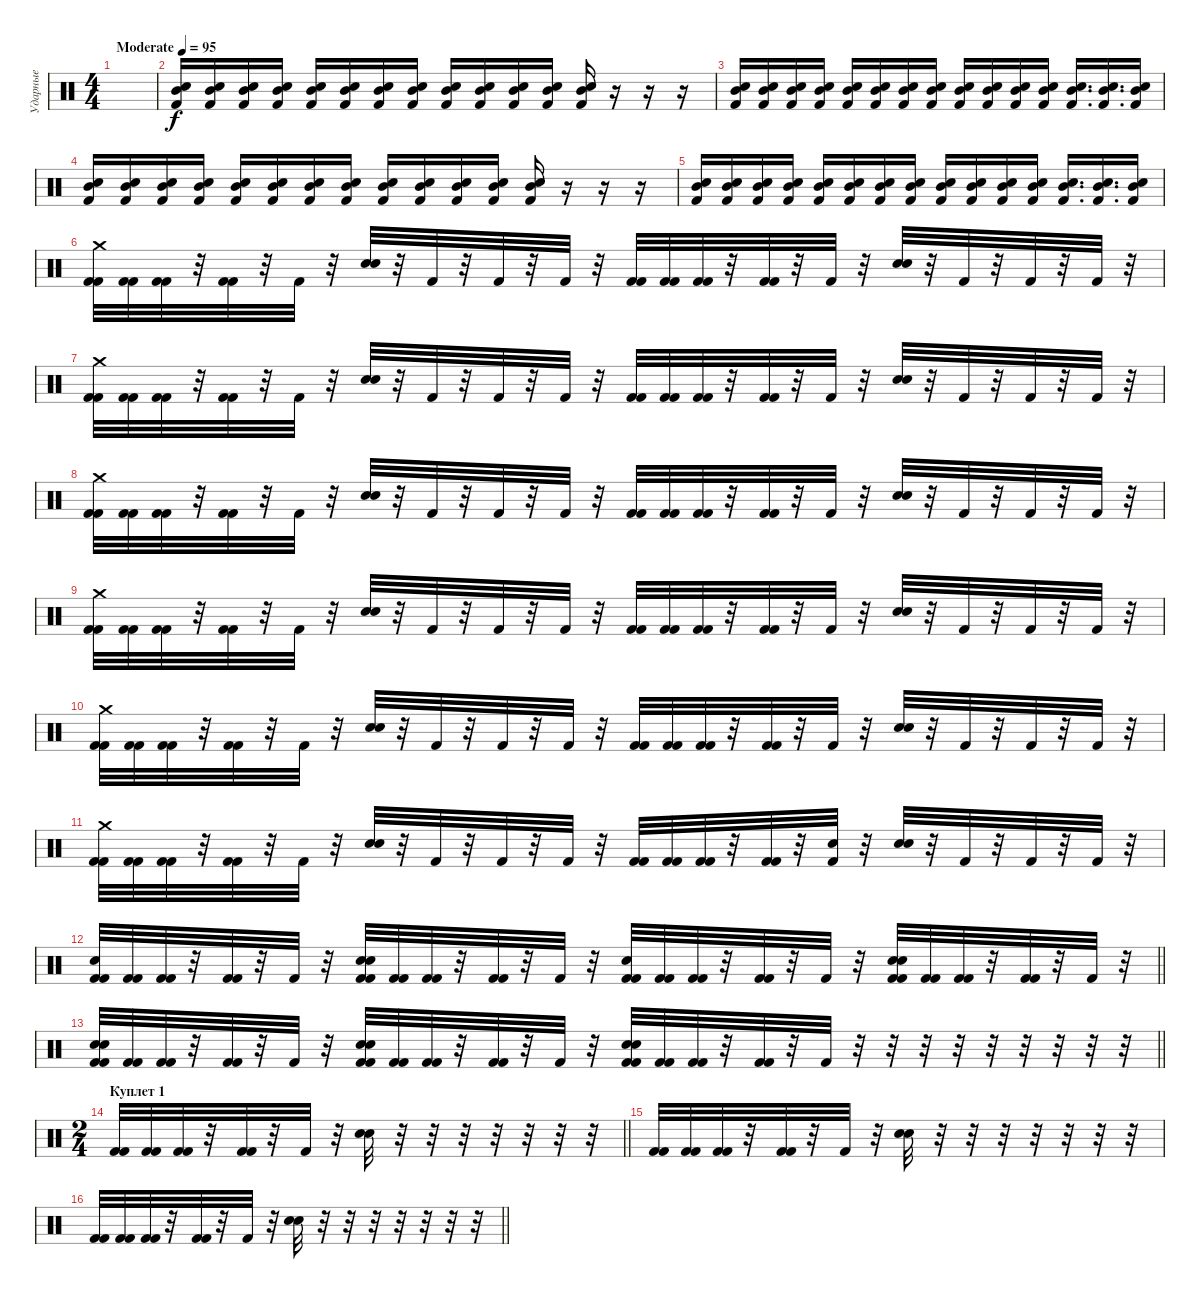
\track ("Ударные" "Ударные") {instrument percussion}
\staff {score}
\articulation defaults
\ts (4 4)
\tempo (95 "Moderate")
\clef neutral
\ks c
|
("Mid Tom (hit)" "Snare (hit) 2" "Kick (hit) 2").16 ("Mid Tom (hit)" "Snare (hit) 2" "Kick (hit) 2").16 ("Mid Tom (hit)" "Snare (hit) 2" "Kick (hit) 2").16 ("Mid Tom (hit)" "Snare (hit) 2" "Kick (hit) 2").16 ("Mid Tom (hit)" "Snare (hit) 2" "Kick (hit) 2").16 ("Mid Tom (hit)" "Snare (hit) 2" "Kick (hit) 2").16 ("Mid Tom (hit)" "Snare (hit) 2" "Kick (hit) 2").16 ("Mid Tom (hit)" "Snare (hit) 2" "Kick (hit) 2").16 ("Mid Tom (hit)" "Snare (hit) 2" "Kick (hit) 2").16 ("Mid Tom (hit)" "Snare (hit) 2" "Kick (hit) 2").16 ("Mid Tom (hit)" "Snare (hit) 2" "Kick (hit) 2").16 ("Mid Tom (hit)" "Snare (hit) 2" "Kick (hit) 2").16 ("Mid Tom (hit)" "Snare (hit) 2" "Kick (hit) 2").16 r.16 r.16 r.16 |
("Mid Tom (hit)" "Snare (hit) 2" "Kick (hit) 2").16 ("Mid Tom (hit)" "Snare (hit) 2" "Kick (hit) 2").16 ("Mid Tom (hit)" "Snare (hit) 2" "Kick (hit) 2").16 ("Mid Tom (hit)" "Snare (hit) 2" "Kick (hit) 2").16 ("Mid Tom (hit)" "Snare (hit) 2" "Kick (hit) 2").16 ("Mid Tom (hit)" "Snare (hit) 2" "Kick (hit) 2").16 ("Mid Tom (hit)" "Snare (hit) 2" "Kick (hit) 2").16 ("Mid Tom (hit)" "Snare (hit) 2" "Kick (hit) 2").16 ("Mid Tom (hit)" "Snare (hit) 2" "Kick (hit) 2").16 ("Mid Tom (hit)" "Snare (hit) 2" "Kick (hit) 2").16 ("Mid Tom (hit)" "Snare (hit) 2" "Kick (hit) 2").16 ("Mid Tom (hit)" "Snare (hit) 2" "Kick (hit) 2").16 ("Mid Tom (hit)" "Snare (hit) 2" "Kick (hit) 2").16{d} ("Mid Tom (hit)" "Snare (hit) 2" "Kick (hit) 2").16{d} ("Mid Tom (hit)" "Snare (hit) 2" "Kick (hit) 2").16 |
("Mid Tom (hit)" "Snare (hit) 2" "Kick (hit) 2").16 ("Mid Tom (hit)" "Snare (hit) 2" "Kick (hit) 2").16 ("Mid Tom (hit)" "Snare (hit) 2" "Kick (hit) 2").16 ("Mid Tom (hit)" "Snare (hit) 2" "Kick (hit) 2").16 ("Mid Tom (hit)" "Snare (hit) 2" "Kick (hit) 2").16 ("Mid Tom (hit)" "Snare (hit) 2" "Kick (hit) 2").16 ("Mid Tom (hit)" "Snare (hit) 2" "Kick (hit) 2").16 ("Mid Tom (hit)" "Snare (hit) 2" "Kick (hit) 2").16 ("Mid Tom (hit)" "Snare (hit) 2" "Kick (hit) 2").16 ("Mid Tom (hit)" "Snare (hit) 2" "Kick (hit) 2").16 ("Mid Tom (hit)" "Snare (hit) 2" "Kick (hit) 2").16 ("Mid Tom (hit)" "Snare (hit) 2" "Kick (hit) 2").16 ("Mid Tom (hit)" "Snare (hit) 2" "Kick (hit) 2").16 r.16 r.16 r.16 |
("Mid Tom (hit)" "Snare (hit) 2" "Kick (hit) 2").16 ("Mid Tom (hit)" "Snare (hit) 2" "Kick (hit) 2").16 ("Mid Tom (hit)" "Snare (hit) 2" "Kick (hit) 2").16 ("Mid Tom (hit)" "Snare (hit) 2" "Kick (hit) 2").16 ("Mid Tom (hit)" "Snare (hit) 2" "Kick (hit) 2").16 ("Mid Tom (hit)" "Snare (hit) 2" "Kick (hit) 2").16 ("Mid Tom (hit)" "Snare (hit) 2" "Kick (hit) 2").16 ("Mid Tom (hit)" "Snare (hit) 2" "Kick (hit) 2").16 ("Mid Tom (hit)" "Snare (hit) 2" "Kick (hit) 2").16 ("Mid Tom (hit)" "Snare (hit) 2" "Kick (hit) 2").16 ("Mid Tom (hit)" "Snare (hit) 2" "Kick (hit) 2").16 ("Mid Tom (hit)" "Snare (hit) 2" "Kick (hit) 2").16 ("Mid Tom (hit)" "Snare (hit) 2" "Kick (hit) 2").16{d} ("Mid Tom (hit)" "Snare (hit) 2" "Kick (hit) 2").16{d} ("Mid Tom (hit)" "Snare (hit) 2" "Kick (hit) 2").16 |
("Kick (hit) 2" "Kick (hit) 2" "Crash medium (hit)").32 ("Kick (hit) 2" "Kick (hit) 2").32 ("Kick (hit) 2" "Kick (hit) 2").32 r.32 ("Kick (hit) 2" "Kick (hit) 2").32 r.32 "Kick (hit) 2".32 r.32 ("Electric Snare (hit)" "Electric Snare (hit)").32 r.32 "Kick (hit) 2".32 r.32 "Kick (hit) 2".32 r.32 "Kick (hit) 2".32 r.32 ("Kick (hit) 2" "Kick (hit) 2").32 ("Kick (hit) 2" "Kick (hit) 2").32 ("Kick (hit) 2" "Kick (hit) 2").32 r.32 ("Kick (hit) 2" "Kick (hit) 2").32 r.32 "Kick (hit) 2".32 r.32 ("Electric Snare (hit)" "Electric Snare (hit)").32 r.32 "Kick (hit) 2".32 r.32 "Kick (hit) 2".32 r.32 "Kick (hit) 2".32 r.32 |
("Kick (hit) 2" "Kick (hit) 2" "Crash medium (hit)").32 ("Kick (hit) 2" "Kick (hit) 2").32 ("Kick (hit) 2" "Kick (hit) 2").32 r.32 ("Kick (hit) 2" "Kick (hit) 2").32 r.32 "Kick (hit) 2".32 r.32 ("Electric Snare (hit)" "Electric Snare (hit)").32 r.32 "Kick (hit) 2".32 r.32 "Kick (hit) 2".32 r.32 "Kick (hit) 2".32 r.32 ("Kick (hit) 2" "Kick (hit) 2").32 ("Kick (hit) 2" "Kick (hit) 2").32 ("Kick (hit) 2" "Kick (hit) 2").32 r.32 ("Kick (hit) 2" "Kick (hit) 2").32 r.32 "Kick (hit) 2".32 r.32 ("Electric Snare (hit)" "Electric Snare (hit)").32 r.32 "Kick (hit) 2".32 r.32 "Kick (hit) 2".32 r.32 "Kick (hit) 2".32 r.32 |
("Kick (hit) 2" "Kick (hit) 2" "Crash medium (hit)").32 ("Kick (hit) 2" "Kick (hit) 2").32 ("Kick (hit) 2" "Kick (hit) 2").32 r.32 ("Kick (hit) 2" "Kick (hit) 2").32 r.32 "Kick (hit) 2".32 r.32 ("Electric Snare (hit)" "Electric Snare (hit)").32 r.32 "Kick (hit) 2".32 r.32 "Kick (hit) 2".32 r.32 "Kick (hit) 2".32 r.32 ("Kick (hit) 2" "Kick (hit) 2").32 ("Kick (hit) 2" "Kick (hit) 2").32 ("Kick (hit) 2" "Kick (hit) 2").32 r.32 ("Kick (hit) 2" "Kick (hit) 2").32 r.32 "Kick (hit) 2".32 r.32 ("Electric Snare (hit)" "Electric Snare (hit)").32 r.32 "Kick (hit) 2".32 r.32 "Kick (hit) 2".32 r.32 "Kick (hit) 2".32 r.32 |
("Kick (hit) 2" "Kick (hit) 2" "Crash medium (hit)").32 ("Kick (hit) 2" "Kick (hit) 2").32 ("Kick (hit) 2" "Kick (hit) 2").32 r.32 ("Kick (hit) 2" "Kick (hit) 2").32 r.32 "Kick (hit) 2".32 r.32 ("Electric Snare (hit)" "Electric Snare (hit)").32 r.32 "Kick (hit) 2".32 r.32 "Kick (hit) 2".32 r.32 "Kick (hit) 2".32 r.32 ("Kick (hit) 2" "Kick (hit) 2").32 ("Kick (hit) 2" "Kick (hit) 2").32 ("Kick (hit) 2" "Kick (hit) 2").32 r.32 ("Kick (hit) 2" "Kick (hit) 2").32 r.32 "Kick (hit) 2".32 r.32 ("Electric Snare (hit)" "Electric Snare (hit)").32 r.32 "Kick (hit) 2".32 r.32 "Kick (hit) 2".32 r.32 "Kick (hit) 2".32 r.32 |
("Kick (hit) 2" "Kick (hit) 2" "Crash medium (hit)").32 ("Kick (hit) 2" "Kick (hit) 2").32 ("Kick (hit) 2" "Kick (hit) 2").32 r.32 ("Kick (hit) 2" "Kick (hit) 2").32 r.32 "Kick (hit) 2".32 r.32 ("Electric Snare (hit)" "Electric Snare (hit)").32 r.32 "Kick (hit) 2".32 r.32 "Kick (hit) 2".32 r.32 "Kick (hit) 2".32 r.32 ("Kick (hit) 2" "Kick (hit) 2").32 ("Kick (hit) 2" "Kick (hit) 2").32 ("Kick (hit) 2" "Kick (hit) 2").32 r.32 ("Kick (hit) 2" "Kick (hit) 2").32 r.32 "Kick (hit) 2".32 r.32 ("Electric Snare (hit)" "Electric Snare (hit)").32 r.32 "Kick (hit) 2".32 r.32 "Kick (hit) 2".32 r.32 "Kick (hit) 2".32 r.32 |
("Kick (hit) 2" "Kick (hit) 2" "Crash medium (hit)").32 ("Kick (hit) 2" "Kick (hit) 2").32 ("Kick (hit) 2" "Kick (hit) 2").32 r.32 ("Kick (hit) 2" "Kick (hit) 2").32 r.32 "Kick (hit) 2".32 r.32 ("Electric Snare (hit)" "Electric Snare (hit)").32 r.32 "Kick (hit) 2".32 r.32 "Kick (hit) 2".32 r.32 "Kick (hit) 2".32 r.32 ("Kick (hit) 2" "Kick (hit) 2").32 ("Kick (hit) 2" "Kick (hit) 2").32 ("Kick (hit) 2" "Kick (hit) 2").32 r.32 ("Kick (hit) 2" "Kick (hit) 2").32 r.32 ("Kick (hit) 2" "Electric Snare (hit)").32 r.32 ("Electric Snare (hit)" "Electric Snare (hit)").32 r.32 "Kick (hit) 2".32 r.32 "Kick (hit) 2".32 r.32 "Kick (hit) 2".32 r.32 |
\barLineRight lightlight
("Kick (hit) 2" "Kick (hit) 2" "Electric Snare (hit)").32 ("Kick (hit) 2" "Kick (hit) 2").32 ("Kick (hit) 2" "Kick (hit) 2").32 r.32 ("Kick (hit) 2" "Kick (hit) 2").32 r.32 "Kick (hit) 2".32 r.32 ("Kick (hit) 2" "Kick (hit) 2" "Electric Snare (hit)" "Electric Snare (hit)").32 ("Kick (hit) 2" "Kick (hit) 2").32 ("Kick (hit) 2" "Kick (hit) 2").32 r.32 ("Kick (hit) 2" "Kick (hit) 2").32 r.32 "Kick (hit) 2".32 r.32 ("Kick (hit) 2" "Kick (hit) 2" "Electric Snare (hit)").32 ("Kick (hit) 2" "Kick (hit) 2").32 ("Kick (hit) 2" "Kick (hit) 2").32 r.32 ("Kick (hit) 2" "Kick (hit) 2").32 r.32 "Kick (hit) 2".32 r.32 ("Kick (hit) 2" "Kick (hit) 2" "Electric Snare (hit)" "Electric Snare (hit)").32 ("Kick (hit) 2" "Kick (hit) 2").32 ("Kick (hit) 2" "Kick (hit) 2").32 r.32 ("Kick (hit) 2" "Kick (hit) 2").32 r.32 "Kick (hit) 2".32 r.32 |
\section ("" "")
\barLineRight lightlight
("Kick (hit) 2" "Kick (hit) 2" "Electric Snare (hit)" "Electric Snare (hit)").32 ("Kick (hit) 2" "Kick (hit) 2").32 ("Kick (hit) 2" "Kick (hit) 2").32 r.32 ("Kick (hit) 2" "Kick (hit) 2").32 r.32 "Kick (hit) 2".32 r.32 ("Kick (hit) 2" "Kick (hit) 2" "Electric Snare (hit)" "Electric Snare (hit)").32 ("Kick (hit) 2" "Kick (hit) 2").32 ("Kick (hit) 2" "Kick (hit) 2").32 r.32 ("Kick (hit) 2" "Kick (hit) 2").32 r.32 "Kick (hit) 2".32 r.32 ("Kick (hit) 2" "Kick (hit) 2" "Electric Snare (hit)" "Electric Snare (hit)").32 ("Kick (hit) 2" "Kick (hit) 2").32 ("Kick (hit) 2" "Kick (hit) 2").32 r.32 ("Kick (hit) 2" "Kick (hit) 2").32 r.32 "Kick (hit) 2".32 r.32 r.32 r.32 r.32 r.32 r.32 r.32 r.32 r.32 |
\ts (2 4)
\section ("" "Куплет 1")
\barLineRight lightlight
("Kick (hit) 2" "Kick (hit) 2").32 ("Kick (hit) 2" "Kick (hit) 2").32 ("Kick (hit) 2" "Kick (hit) 2").32 r.32 ("Kick (hit) 2" "Kick (hit) 2").32 r.32 "Kick (hit) 2".32 r.32 ("Electric Snare (hit)" "Electric Snare (hit)").32 r.32 r.32 r.32 r.32 r.32 r.32 r.32 |
\section ("" "")
("Kick (hit) 2" "Kick (hit) 2").32 ("Kick (hit) 2" "Kick (hit) 2").32 ("Kick (hit) 2" "Kick (hit) 2").32 r.32 ("Kick (hit) 2" "Kick (hit) 2").32 r.32 "Kick (hit) 2".32 r.32 ("Electric Snare (hit)" "Electric Snare (hit)").32 r.32 r.32 r.32 r.32 r.32 r.32 r.32 |
\barLineRight lightlight
("Kick (hit) 2" "Kick (hit) 2").32 ("Kick (hit) 2" "Kick (hit) 2").32 ("Kick (hit) 2" "Kick (hit) 2").32 r.32 ("Kick (hit) 2" "Kick (hit) 2").32 r.32 "Kick (hit) 2".32 r.32 ("Electric Snare (hit)" "Electric Snare (hit)").32 r.32 r.32 r.32 r.32 r.32 r.32 r.32
